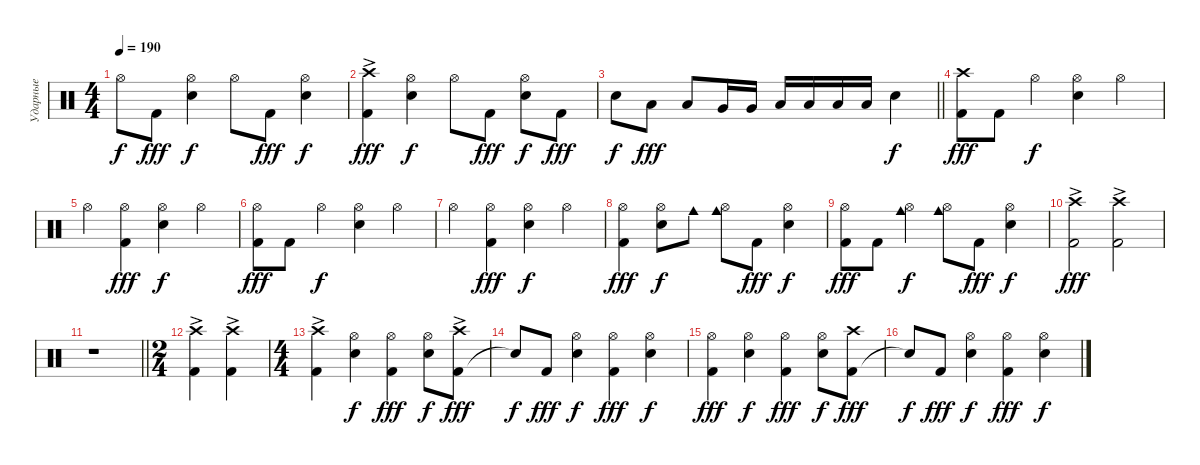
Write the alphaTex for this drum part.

\track ("Ударные" "Ударные") {instrument percussion}
\staff {score}
\articulation defaults
\ts (4 4)
\tempo 190
\clef neutral
\ks c "Hi-Hat (open)"{t}.8{dy f} "Kick (hit) 2".8{dy fff}
("Snare (hit) 2" "Hi-Hat (open)").4{dy f} "Hi-Hat (open)".8 "Kick (hit) 2".8{dy fff} ("Snare (hit) 2" "Hi-Hat (open)").4{dy f} |
("Kick (hit) 2" "Crash high (hit)"{ac}).4{dy fff} ("Snare (hit) 2" "Hi-Hat (open)").4{dy f} "Hi-Hat (open)".8 "Kick (hit) 2".8{dy fff} ("Snare (hit) 2" "Hi-Hat (open)").8{dy f} "Kick (hit) 2".8{dy fff} |
\barLineRight lightlight "Snare (hit) 2".8{dy f} "Low Tom (hit)".8{dy fff} "Low Tom (hit)".8 "Very Low Tom (hit)".16 "Very Low Tom (hit)".16 "Low Floor Tom (hit)".16 "Low Floor Tom (hit)".16 "Low Floor Tom (hit)".16 "Low Floor Tom (hit)".16 "Snare (hit) 2".4{dy f}
|
("Kick (hit) 2" "Crash high (hit)").8{dy fff} "Kick (hit) 2".8 "Hi-Hat (open)".4{dy f} ("Snare (hit) 2" "Hi-Hat (open)").4 "Hi-Hat (open)".4 |
"Hi-Hat (open)".4 ("Kick (hit) 2" "Hi-Hat (open)").4{dy fff} ("Snare (hit) 2" "Hi-Hat (open)").4{dy f} "Hi-Hat (open)".4 |
("Kick (hit) 2" "Hi-Hat (open)").8{dy fff} "Kick (hit) 2".8 "Hi-Hat (open)".4{dy f} ("Snare (hit) 2" "Hi-Hat (open)").4 "Hi-Hat (open)".4 |
"Hi-Hat (open)".4 ("Kick (hit) 2" "Hi-Hat (open)").4{dy fff} ("Snare (hit) 2" "Hi-Hat (open)").4{dy f} "Hi-Hat (open)".4 |
("Kick (hit) 2" "Hi-Hat (open)").4{dy fff} ("Snare (hit) 2" "Hi-Hat (open)").8{dy f} "Cowbell medium (hit)".8 ("Cowbell medium (hit)" "Hi-Hat (open)").8 "Kick (hit) 2".8{dy fff} ("Snare (hit) 2" "Hi-Hat (open)").4{dy f} |
("Kick (hit) 2" "Hi-Hat (open)").8{dy fff} "Kick (hit) 2".8 ("Cowbell medium (hit)" "Hi-Hat (open)").4{dy f} ("Cowbell medium (hit)" "Hi-Hat (open)").8 "Kick (hit) 2".8{dy fff} ("Snare (hit) 2" "Hi-Hat (open)").4{dy f} |
("Kick (hit) 2" "Crash high (hit)"{ac}).2{dy fff} ("Kick (hit) 2" "Crash high (hit)"{ac}).2 |
\barLineRight lightlight
r.1 |
\ts (2 4)
("Kick (hit) 2" "Crash high (hit)"{ac}).4 ("Kick (hit) 2" "Crash high (hit)"{ac}).4 |
\ts (4 4)
("Kick (hit) 2" "Crash high (hit)"{ac}).4 ("Snare (hit) 2" "Hi-Hat (open)").4{dy f} ("Kick (hit) 2" "Hi-Hat (open)").4{dy fff} ("Snare (hit) 2" "Hi-Hat (open)").8{dy f} ("Kick (hit) 2" "Crash high (hit)"{ac}).8{dy fff} |
"Snare (hit)"{t}.8{dy f} "Kick (hit) 2".8{dy fff} ("Snare (hit) 2" "Hi-Hat (open)").4{dy f} ("Kick (hit) 2" "Hi-Hat (open)").4{dy fff} ("Snare (hit) 2" "Hi-Hat (open)").4{dy f} |
("Kick (hit) 2" "Hi-Hat (open)").4{dy fff} ("Snare (hit) 2" "Hi-Hat (open)").4{dy f} ("Kick (hit) 2" "Hi-Hat (open)").4{dy fff} ("Snare (hit) 2" "Hi-Hat (open)").8{dy f} ("Kick (hit) 2" "Crash high (hit)").8{dy fff} |
"Snare (hit)"{t}.8{dy f} "Kick (hit) 2".8{dy fff} ("Snare (hit) 2" "Hi-Hat (open)").4{dy f} ("Kick (hit) 2" "Hi-Hat (open)").4{dy fff} ("Snare (hit) 2" "Hi-Hat (open)").4{dy f}
